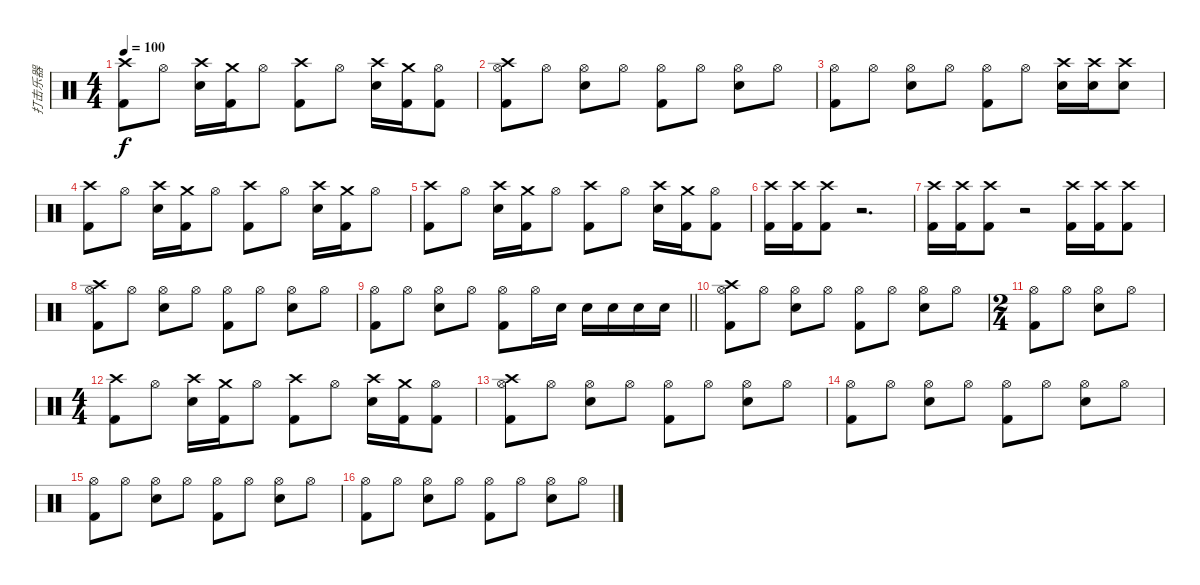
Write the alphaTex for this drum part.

\track ("打击乐器" "打击乐器") {instrument percussion}
\staff {score}
\articulation defaults
\ts (4 4)
\tempo 100
\clef neutral
\ks c
("Crash high (hit)" "Kick (hit) 2").8{dy f} "Hi-Hat (open)".8 ("Electric Snare (hit)" "Crash high (hit)").16 ("Kick (hit) 2" "Crash medium (hit)").16 "Hi-Hat (open)".8 ("Crash high (hit)" "Kick (hit) 2").8 "Hi-Hat (open)".8 ("Electric Snare (hit)" "Crash high (hit)").16 ("Kick (hit) 2" "Crash medium (hit)").16 ("Hi-Hat (open)" "Kick (hit) 2").8 |
("Kick (hit) 2" "Hi-Hat (open)" "Crash high (hit)").8 "Hi-Hat (open)".8 ("Electric Snare (hit)" "Hi-Hat (open)").8 "Hi-Hat (open)".8 ("Kick (hit) 2" "Hi-Hat (open)").8 "Hi-Hat (open)".8 ("Electric Snare (hit)" "Hi-Hat (open)").8 "Hi-Hat (open)".8 |
("Kick (hit) 2" "Hi-Hat (open)").8 "Hi-Hat (open)".8 ("Electric Snare (hit)" "Hi-Hat (open)").8 "Hi-Hat (open)".8 ("Kick (hit) 2" "Hi-Hat (open)").8 "Hi-Hat (open)".8 ("Electric Snare (hit)" "Crash high (hit)").16 ("Electric Snare (hit)" "Crash high (hit)").16 ("Electric Snare (hit)" "Crash high (hit)").8 |
("Crash high (hit)" "Kick (hit) 2").8 "Hi-Hat (open)".8 ("Electric Snare (hit)" "Crash high (hit)").16 ("Kick (hit) 2" "Crash medium (hit)").16 "Hi-Hat (open)".8 ("Crash high (hit)" "Kick (hit) 2").8 "Hi-Hat (open)".8 ("Electric Snare (hit)" "Crash high (hit)").16 ("Kick (hit) 2" "Crash medium (hit)").16 "Hi-Hat (open)".8 |
("Crash high (hit)" "Kick (hit) 2").8 "Hi-Hat (open)".8 ("Electric Snare (hit)" "Crash high (hit)").16 ("Kick (hit) 2" "Crash medium (hit)").16 "Hi-Hat (open)".8 ("Crash high (hit)" "Kick (hit) 2").8 "Hi-Hat (open)".8 ("Electric Snare (hit)" "Crash high (hit)").16 ("Kick (hit) 2" "Crash medium (hit)").16 ("Hi-Hat (open)" "Kick (hit) 2").8 |
("Kick (hit) 2" "Crash high (hit)").16 ("Kick (hit) 2" "Crash high (hit)").16 ("Crash high (hit)" "Kick (hit) 2").8 r.2{d} |
("Kick (hit) 2" "Crash high (hit)").16 ("Kick (hit) 2" "Crash high (hit)").16 ("Crash high (hit)" "Kick (hit) 2").8 r.2 ("Kick (hit) 2" "Crash high (hit)").16 ("Kick (hit) 2" "Crash high (hit)").16 ("Crash high (hit)" "Kick (hit) 2").8 |
("Kick (hit) 2" "Hi-Hat (open)" "Crash high (hit)").8 "Hi-Hat (open)".8 ("Electric Snare (hit)" "Hi-Hat (open)").8 "Hi-Hat (open)".8 ("Kick (hit) 2" "Hi-Hat (open)").8 "Hi-Hat (open)".8 ("Electric Snare (hit)" "Hi-Hat (open)").8 "Hi-Hat (open)".8 |
\barLineRight lightlight
("Kick (hit) 2" "Hi-Hat (open)").8 "Hi-Hat (open)".8 ("Electric Snare (hit)" "Hi-Hat (open)").8 "Hi-Hat (open)".8 ("Kick (hit) 2" "Hi-Hat (open)").8 "Hi-Hat (open)".16 "Electric Snare (hit)".16 "Electric Snare (hit)".16 "Electric Snare (hit)".16 "Electric Snare (hit)".16 "Electric Snare (hit)".16 |
("Kick (hit) 2" "Hi-Hat (open)" "Crash high (hit)").8 "Hi-Hat (open)".8 ("Electric Snare (hit)" "Hi-Hat (open)").8 "Hi-Hat (open)".8 ("Kick (hit) 2" "Hi-Hat (open)").8 "Hi-Hat (open)".8 ("Electric Snare (hit)" "Hi-Hat (open)").8 "Hi-Hat (open)".8 |
\ts (2 4)
("Kick (hit) 2" "Hi-Hat (open)").8 "Hi-Hat (open)".8 ("Electric Snare (hit)" "Hi-Hat (open)").8 "Hi-Hat (open)".8 |
\ts (4 4)
("Crash high (hit)" "Kick (hit) 2").8 "Hi-Hat (open)".8 ("Electric Snare (hit)" "Crash high (hit)").16 ("Kick (hit) 2" "Crash medium (hit)").16 "Hi-Hat (open)".8 ("Crash high (hit)" "Kick (hit) 2").8 "Hi-Hat (open)".8 ("Electric Snare (hit)" "Crash high (hit)").16 ("Kick (hit) 2" "Crash medium (hit)").16 ("Hi-Hat (open)" "Kick (hit) 2").8 |
("Kick (hit) 2" "Hi-Hat (open)" "Crash high (hit)").8 "Hi-Hat (open)".8 ("Electric Snare (hit)" "Hi-Hat (open)").8 "Hi-Hat (open)".8 ("Kick (hit) 2" "Hi-Hat (open)").8 "Hi-Hat (open)".8 ("Electric Snare (hit)" "Hi-Hat (open)").8 "Hi-Hat (open)".8 |
("Kick (hit) 2" "Hi-Hat (open)").8 "Hi-Hat (open)".8 ("Electric Snare (hit)" "Hi-Hat (open)").8 "Hi-Hat (open)".8 ("Kick (hit) 2" "Hi-Hat (open)").8 "Hi-Hat (open)".8 ("Electric Snare (hit)" "Hi-Hat (open)").8 "Hi-Hat (open)".8 |
("Kick (hit) 2" "Hi-Hat (open)").8 "Hi-Hat (open)".8 ("Electric Snare (hit)" "Hi-Hat (open)").8 "Hi-Hat (open)".8 ("Kick (hit) 2" "Hi-Hat (open)").8 "Hi-Hat (open)".8 ("Electric Snare (hit)" "Hi-Hat (open)").8 "Hi-Hat (open)".8 |
("Kick (hit) 2" "Hi-Hat (open)").8 "Hi-Hat (open)".8 ("Electric Snare (hit)" "Hi-Hat (open)").8 "Hi-Hat (open)".8 ("Kick (hit) 2" "Hi-Hat (open)").8 "Hi-Hat (open)".8 ("Electric Snare (hit)" "Hi-Hat (open)").8 "Hi-Hat (open)".8
